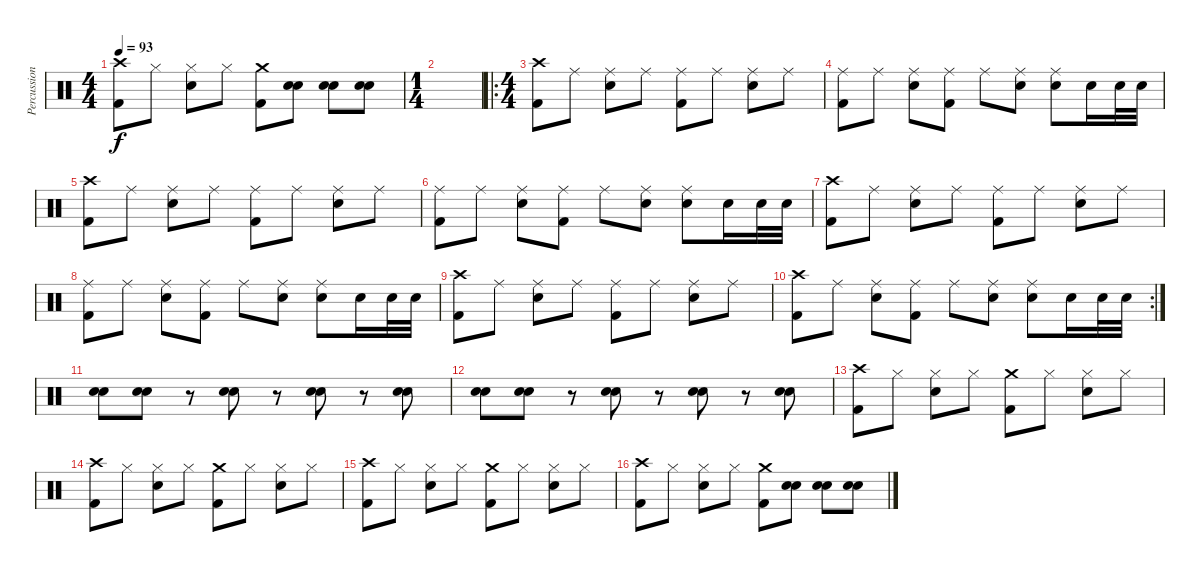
\track ("Percussioni" "Percussion") {instrument percussion}
\staff {score}
\articulation defaults
\ts (4 4)
\tempo 93
\clef neutral
\ks c
("Crash high (hit)" "Kick (hit) 2").8{dy f} "Hi-Hat (closed)".8 ("Hi-Hat (closed)" "Snare (hit) 2").8 "Hi-Hat (closed)".8 ("Crash medium (hit)" "Kick (hit) 2").8 ("Snare (hit) 2" "Snare (hit) 2").8 ("Snare (hit) 2" "Snare (hit) 2").8 ("Snare (hit) 2" "Snare (hit) 2").8 |
\ts (1 4)
|
\ro
\ts (4 4)
("Crash high (hit)" "Kick (hit) 2").8 "Ride (middle)".8 ("Ride (middle)" "Snare (hit) 2").8 "Ride (middle)".8 ("Ride (middle)" "Kick (hit) 2").8 "Ride (middle)".8 ("Ride (middle)" "Snare (hit) 2").8 "Ride (middle)".8 |
("Ride (middle)" "Kick (hit) 2").8 "Ride (middle)".8 ("Ride (middle)" "Snare (hit) 2").8 ("Ride (middle)" "Kick (hit) 2").8 "Ride (middle)".8 ("Ride (middle)" "Snare (hit) 2").8 ("Ride (middle)" "Snare (hit) 2").8 "Snare (hit) 2".16 "Snare (hit) 2".32 "Snare (hit) 2".32 |
("Crash high (hit)" "Kick (hit) 2").8 "Ride (middle)".8 ("Ride (middle)" "Snare (hit) 2").8 "Ride (middle)".8 ("Ride (middle)" "Kick (hit) 2").8 "Ride (middle)".8 ("Ride (middle)" "Snare (hit) 2").8 "Ride (middle)".8 |
("Ride (middle)" "Kick (hit) 2").8 "Ride (middle)".8 ("Ride (middle)" "Snare (hit) 2").8 ("Ride (middle)" "Kick (hit) 2").8 "Ride (middle)".8 ("Ride (middle)" "Snare (hit) 2").8 ("Ride (middle)" "Snare (hit) 2").8 "Snare (hit) 2".16 "Snare (hit) 2".32 "Snare (hit) 2".32 |
("Crash high (hit)" "Kick (hit) 2").8 "Ride (middle)".8 ("Ride (middle)" "Snare (hit) 2").8 "Ride (middle)".8 ("Ride (middle)" "Kick (hit) 2").8 "Ride (middle)".8 ("Ride (middle)" "Snare (hit) 2").8 "Ride (middle)".8 |
("Ride (middle)" "Kick (hit) 2").8 "Ride (middle)".8 ("Ride (middle)" "Snare (hit) 2").8 ("Ride (middle)" "Kick (hit) 2").8 "Ride (middle)".8 ("Ride (middle)" "Snare (hit) 2").8 ("Ride (middle)" "Snare (hit) 2").8 "Snare (hit) 2".16 "Snare (hit) 2".32 "Snare (hit) 2".32 |
("Crash high (hit)" "Kick (hit) 2").8 "Ride (middle)".8 ("Ride (middle)" "Snare (hit) 2").8 "Ride (middle)".8 ("Ride (middle)" "Kick (hit) 2").8 "Ride (middle)".8 ("Ride (middle)" "Snare (hit) 2").8 "Ride (middle)".8 |
\rc 2
("Crash high (hit)" "Kick (hit) 2").8 "Ride (middle)".8 ("Ride (middle)" "Snare (hit) 2").8 ("Ride (middle)" "Kick (hit) 2").8 "Ride (middle)".8 ("Ride (middle)" "Snare (hit) 2").8 ("Ride (middle)" "Snare (hit) 2").8 "Snare (hit) 2".16 "Snare (hit) 2".32 "Snare (hit) 2".32 |
("Snare (hit) 2" "Snare (hit) 2").8 ("Snare (hit) 2" "Snare (hit) 2").8 r.8 ("Snare (hit) 2" "Snare (hit) 2").8 r.8 ("Snare (hit) 2" "Snare (hit) 2").8 r.8 ("Snare (hit) 2" "Snare (hit) 2").8 |
("Snare (hit) 2" "Snare (hit) 2").8 ("Snare (hit) 2" "Snare (hit) 2").8 r.8 ("Snare (hit) 2" "Snare (hit) 2").8 r.8 ("Snare (hit) 2" "Snare (hit) 2").8 r.8 ("Snare (hit) 2" "Snare (hit) 2").8 |
("Crash high (hit)" "Kick (hit) 2").8 "Hi-Hat (closed)".8 ("Hi-Hat (closed)" "Snare (hit) 2").8 "Hi-Hat (closed)".8 ("Crash medium (hit)" "Kick (hit) 2").8 "Hi-Hat (closed)".8 ("Hi-Hat (closed)" "Snare (hit) 2").8 "Hi-Hat (closed)".8 |
("Crash high (hit)" "Kick (hit) 2").8 "Hi-Hat (closed)".8 ("Hi-Hat (closed)" "Snare (hit) 2").8 "Hi-Hat (closed)".8 ("Crash medium (hit)" "Kick (hit) 2").8 "Hi-Hat (closed)".8 ("Hi-Hat (closed)" "Snare (hit) 2").8 "Hi-Hat (closed)".8 |
("Crash high (hit)" "Kick (hit) 2").8 "Hi-Hat (closed)".8 ("Hi-Hat (closed)" "Snare (hit) 2").8 "Hi-Hat (closed)".8 ("Crash medium (hit)" "Kick (hit) 2").8 "Hi-Hat (closed)".8 ("Hi-Hat (closed)" "Snare (hit) 2").8 "Hi-Hat (closed)".8 |
("Crash high (hit)" "Kick (hit) 2").8 "Hi-Hat (closed)".8 ("Hi-Hat (closed)" "Snare (hit) 2").8 "Hi-Hat (closed)".8 ("Crash medium (hit)" "Kick (hit) 2").8 ("Snare (hit) 2" "Snare (hit) 2").8 ("Snare (hit) 2" "Snare (hit) 2").8 ("Snare (hit) 2" "Snare (hit) 2").8
